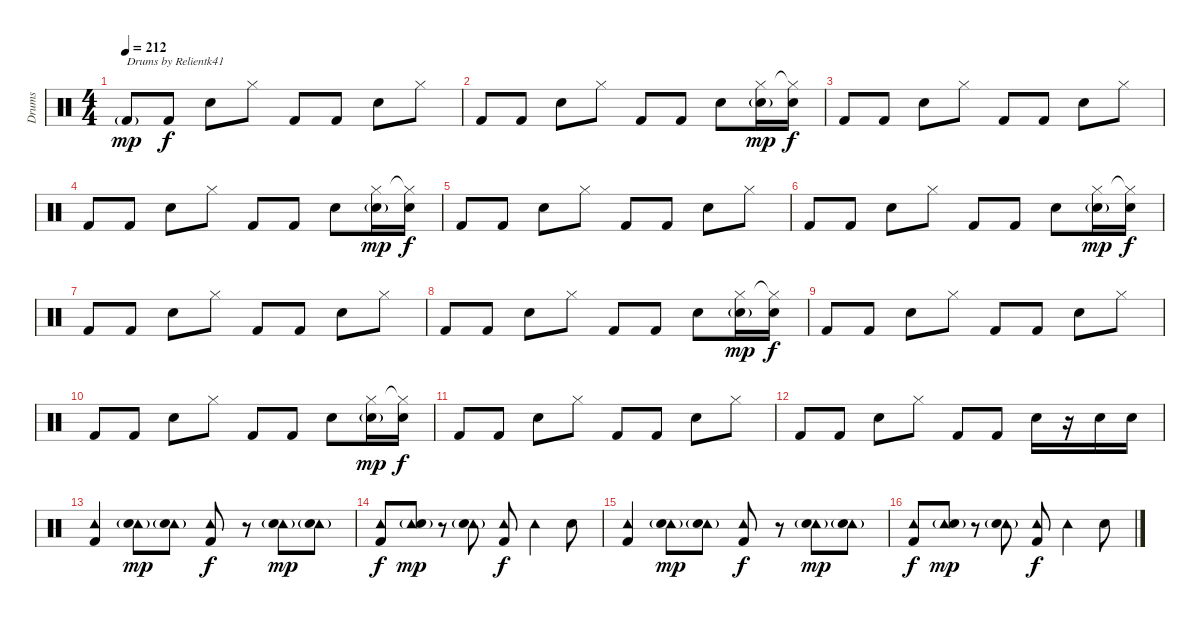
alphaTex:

\track ("Drums" "Drums") {instrument percussion}
\staff {score}
\articulation defaults
\ts (4 4)
\tempo 212
\clef neutral
\ks c "Kick (hit) 2"{g}.8{txt "Drums by Relientk41" dy mp} "Kick (hit) 2".8{dy f} "Electric Snare (hit)".8 "Hi-Hat (closed)".8 "Kick (hit) 2".8 "Kick (hit) 2".8 "Electric Snare (hit)".8 "Hi-Hat (closed)".8
|
"Kick (hit) 2".8 "Kick (hit) 2".8 "Electric Snare (hit)".8 "Hi-Hat (closed)".8 "Kick (hit) 2".8 "Kick (hit) 2".8 "Electric Snare (hit)".8 ("Hi-Hat (closed)" "Electric Snare (hit)"{g}).16{dy mp} ("Hi-Hat (closed)"{t} "Electric Snare (hit)").16{dy f} |
"Kick (hit) 2".8 "Kick (hit) 2".8 "Electric Snare (hit)".8 "Hi-Hat (closed)".8 "Kick (hit) 2".8 "Kick (hit) 2".8 "Electric Snare (hit)".8 "Hi-Hat (closed)".8 |
"Kick (hit) 2".8 "Kick (hit) 2".8 "Electric Snare (hit)".8 "Hi-Hat (closed)".8 "Kick (hit) 2".8 "Kick (hit) 2".8 "Electric Snare (hit)".8 ("Hi-Hat (closed)" "Electric Snare (hit)"{g}).16{dy mp} ("Hi-Hat (closed)"{t} "Electric Snare (hit)").16{dy f} |
"Kick (hit) 2".8 "Kick (hit) 2".8 "Electric Snare (hit)".8 "Hi-Hat (closed)".8 "Kick (hit) 2".8 "Kick (hit) 2".8 "Electric Snare (hit)".8 "Hi-Hat (closed)".8 |
"Kick (hit) 2".8 "Kick (hit) 2".8 "Electric Snare (hit)".8 "Hi-Hat (closed)".8 "Kick (hit) 2".8 "Kick (hit) 2".8 "Electric Snare (hit)".8 ("Hi-Hat (closed)" "Electric Snare (hit)"{g}).16{dy mp} ("Hi-Hat (closed)"{t} "Electric Snare (hit)").16{dy f} |
"Kick (hit) 2".8 "Kick (hit) 2".8 "Electric Snare (hit)".8 "Hi-Hat (closed)".8 "Kick (hit) 2".8 "Kick (hit) 2".8 "Electric Snare (hit)".8 "Hi-Hat (closed)".8 |
"Kick (hit) 2".8 "Kick (hit) 2".8 "Electric Snare (hit)".8 "Hi-Hat (closed)".8 "Kick (hit) 2".8 "Kick (hit) 2".8 "Electric Snare (hit)".8 ("Hi-Hat (closed)" "Electric Snare (hit)"{g}).16{dy mp} ("Hi-Hat (closed)"{t} "Electric Snare (hit)").16{dy f} |
"Kick (hit) 2".8 "Kick (hit) 2".8 "Electric Snare (hit)".8 "Hi-Hat (closed)".8 "Kick (hit) 2".8 "Kick (hit) 2".8 "Electric Snare (hit)".8 "Hi-Hat (closed)".8 |
"Kick (hit) 2".8 "Kick (hit) 2".8 "Electric Snare (hit)".8 "Hi-Hat (closed)".8 "Kick (hit) 2".8 "Kick (hit) 2".8 "Electric Snare (hit)".8 ("Hi-Hat (closed)" "Electric Snare (hit)"{g}).16{dy mp} ("Hi-Hat (closed)"{t} "Electric Snare (hit)").16{dy f} |
"Kick (hit) 2".8 "Kick (hit) 2".8 "Electric Snare (hit)".8 "Hi-Hat (closed)".8 "Kick (hit) 2".8 "Kick (hit) 2".8 "Electric Snare (hit)".8 "Hi-Hat (closed)".8 |
"Kick (hit) 2".8 "Kick (hit) 2".8 "Electric Snare (hit)".8 "Hi-Hat (closed)".8 "Kick (hit) 2".8 "Kick (hit) 2".8 "Electric Snare (hit)".16 r.16 "Electric Snare (hit)".16 "Electric Snare (hit)".16 |
("Tambourine (hit)" "Kick (hit) 2").4 ("Tambourine (hit)" "Electric Snare (hit)"{g}).8{dy mp} ("Tambourine (hit)" "Electric Snare (hit)"{g}).8 ("Tambourine (hit)" "Kick (hit) 2").8{dy f} r.8 ("Tambourine (hit)" "Electric Snare (hit)"{g}).8{dy mp} ("Tambourine (hit)" "Electric Snare (hit)"{g}).8 |
("Tambourine (hit)" "Kick (hit) 2").8{dy f} ("Tambourine (hit)" "Electric Snare (hit)"{g}).8{dy mp} r.8 ("Tambourine (hit)" "Electric Snare (hit)"{g}).8 ("Tambourine (hit)" "Kick (hit) 2").8{dy f} "Tambourine (hit)".4 "Electric Snare (hit)".8 |
("Tambourine (hit)" "Kick (hit) 2").4 ("Tambourine (hit)" "Electric Snare (hit)"{g}).8{dy mp} ("Tambourine (hit)" "Electric Snare (hit)"{g}).8 ("Tambourine (hit)" "Kick (hit) 2").8{dy f} r.8 ("Tambourine (hit)" "Electric Snare (hit)"{g}).8{dy mp} ("Tambourine (hit)" "Electric Snare (hit)"{g}).8 |
("Tambourine (hit)" "Kick (hit) 2").8{dy f} ("Tambourine (hit)" "Electric Snare (hit)"{g}).8{dy mp} r.8 ("Tambourine (hit)" "Electric Snare (hit)"{g}).8 ("Tambourine (hit)" "Kick (hit) 2").8{dy f} "Tambourine (hit)".4 "Electric Snare (hit)".8
